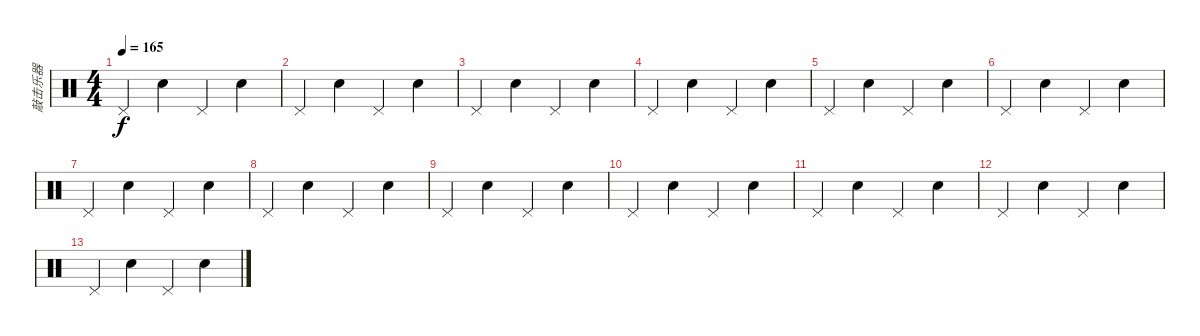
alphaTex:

\track ("敲击乐器" "敲击乐器") {instrument percussion}
\staff {score}
\articulation defaults
\ts (4 4)
\tempo 165
\clef neutral
\ks c "Pedal Hi-Hat (hit)".4{dy f} "Snare (hit) 2".4 "Pedal Hi-Hat (hit)".4 "Snare (hit) 2".4
|
"Pedal Hi-Hat (hit)".4 "Snare (hit) 2".4 "Pedal Hi-Hat (hit)".4 "Snare (hit) 2".4 |
"Pedal Hi-Hat (hit)".4 "Snare (hit) 2".4 "Pedal Hi-Hat (hit)".4 "Snare (hit) 2".4 |
"Pedal Hi-Hat (hit)".4 "Snare (hit) 2".4 "Pedal Hi-Hat (hit)".4 "Snare (hit) 2".4 |
"Pedal Hi-Hat (hit)".4 "Snare (hit) 2".4 "Pedal Hi-Hat (hit)".4 "Snare (hit) 2".4 |
"Pedal Hi-Hat (hit)".4 "Snare (hit) 2".4 "Pedal Hi-Hat (hit)".4 "Snare (hit) 2".4 |
"Pedal Hi-Hat (hit)".4 "Snare (hit) 2".4 "Pedal Hi-Hat (hit)".4 "Snare (hit) 2".4 |
"Pedal Hi-Hat (hit)".4 "Snare (hit) 2".4 "Pedal Hi-Hat (hit)".4 "Snare (hit) 2".4 |
"Pedal Hi-Hat (hit)".4 "Snare (hit) 2".4 "Pedal Hi-Hat (hit)".4 "Snare (hit) 2".4 |
"Pedal Hi-Hat (hit)".4 "Snare (hit) 2".4 "Pedal Hi-Hat (hit)".4 "Snare (hit) 2".4 |
"Pedal Hi-Hat (hit)".4 "Snare (hit) 2".4 "Pedal Hi-Hat (hit)".4 "Snare (hit) 2".4 |
"Pedal Hi-Hat (hit)".4 "Snare (hit) 2".4 "Pedal Hi-Hat (hit)".4 "Snare (hit) 2".4 |
"Pedal Hi-Hat (hit)".4 "Snare (hit) 2".4 "Pedal Hi-Hat (hit)".4 "Snare (hit) 2".4
